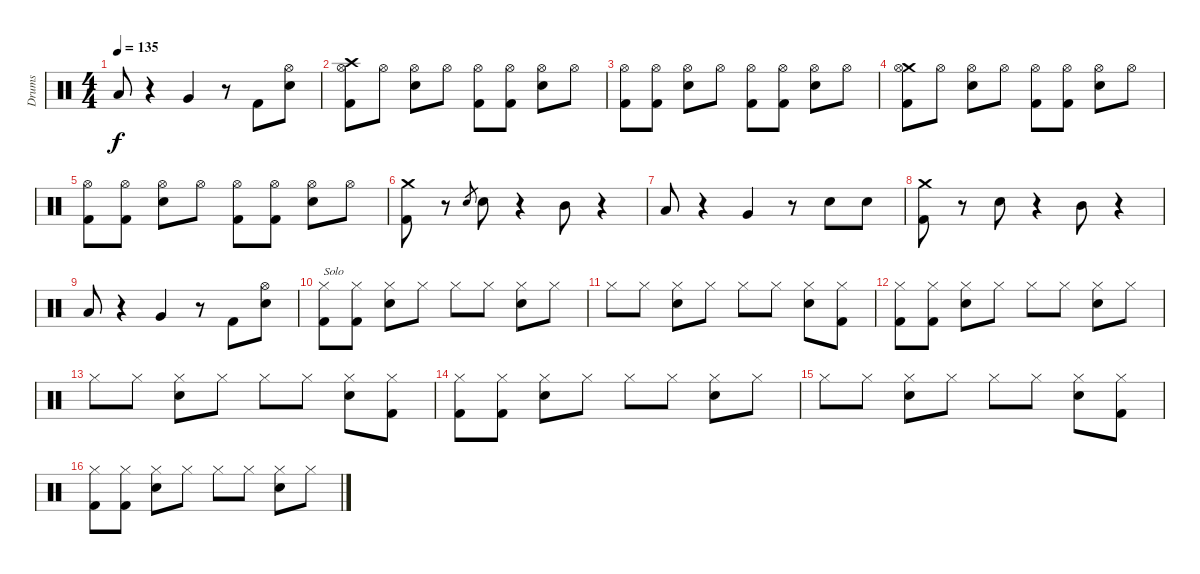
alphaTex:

\track ("Drums" "Drums") {instrument percussion}
\staff {score}
\articulation defaults
\ts (4 4)
\tempo 135
\clef neutral
\ks c "Low Tom (hit)".8{dy f}
r.4 "Very Low Tom (hit)".4 r.8 "Kick (hit) 2".8 ("Hi-Hat (open)" "Electric Snare (hit)").8 |
("Crash high (hit)" "Hi-Hat (open)" "Kick (hit) 2").8 "Hi-Hat (open)".8 ("Hi-Hat (open)" "Electric Snare (hit)").8 "Hi-Hat (open)".8 ("Hi-Hat (open)" "Kick (hit) 2").8 ("Hi-Hat (open)" "Kick (hit) 2").8 ("Hi-Hat (open)" "Electric Snare (hit)").8 "Hi-Hat (open)".8 |
("Hi-Hat (open)" "Kick (hit) 2").8 ("Hi-Hat (open)" "Kick (hit) 2").8 ("Hi-Hat (open)" "Electric Snare (hit)").8 "Hi-Hat (open)".8 ("Hi-Hat (open)" "Kick (hit) 2").8 ("Hi-Hat (open)" "Kick (hit) 2").8 ("Hi-Hat (open)" "Electric Snare (hit)").8 "Hi-Hat (open)".8 |
("Crash medium (hit)" "Hi-Hat (open)" "Kick (hit) 2").8 "Hi-Hat (open)".8 ("Hi-Hat (open)" "Electric Snare (hit)").8 "Hi-Hat (open)".8 ("Hi-Hat (open)" "Kick (hit) 2").8 ("Hi-Hat (open)" "Kick (hit) 2").8 ("Hi-Hat (open)" "Electric Snare (hit)").8 "Hi-Hat (open)".8 |
("Hi-Hat (open)" "Kick (hit) 2").8 ("Hi-Hat (open)" "Kick (hit) 2").8 ("Hi-Hat (open)" "Electric Snare (hit)").8 "Hi-Hat (open)".8 ("Hi-Hat (open)" "Kick (hit) 2").8 ("Hi-Hat (open)" "Kick (hit) 2").8 ("Hi-Hat (open)" "Electric Snare (hit)").8 "Hi-Hat (open)".8 |
("Crash medium (hit)" "Kick (hit) 2").8 r.8 "Electric Snare (hit)".8{gr} "Electric Snare (hit)".8 r.4 "Mid Tom (hit)".8 r.4 |
"Low Tom (hit)".8 r.4 "Very Low Tom (hit)".4 r.8 "Electric Snare (hit)".8 "Electric Snare (hit)".8 |
("Crash medium (hit)" "Kick (hit) 2").8 r.8 "Electric Snare (hit)".8 r.4 "Mid Tom (hit)".8 r.4 |
"Low Tom (hit)".8 r.4 "Very Low Tom (hit)".4 r.8 "Kick (hit) 2".8 ("Hi-Hat (open)" "Electric Snare (hit)").8 |
("Hi-Hat (closed)" "Kick (hit) 2").8{txt "Solo"} ("Hi-Hat (closed)" "Kick (hit) 2").8 ("Hi-Hat (closed)" "Electric Snare (hit)").8 "Hi-Hat (closed)".8 "Hi-Hat (closed)".8 "Hi-Hat (closed)".8 ("Hi-Hat (closed)" "Electric Snare (hit)").8 "Hi-Hat (closed)".8 |
"Hi-Hat (closed)".8 "Hi-Hat (closed)".8 ("Hi-Hat (closed)" "Electric Snare (hit)").8 "Hi-Hat (closed)".8 "Hi-Hat (closed)".8 "Hi-Hat (closed)".8 ("Hi-Hat (closed)" "Electric Snare (hit)").8 ("Hi-Hat (closed)" "Kick (hit) 2").8 |
("Hi-Hat (closed)" "Kick (hit) 2").8 ("Hi-Hat (closed)" "Kick (hit) 2").8 ("Hi-Hat (closed)" "Electric Snare (hit)").8 "Hi-Hat (closed)".8 "Hi-Hat (closed)".8 "Hi-Hat (closed)".8 ("Hi-Hat (closed)" "Electric Snare (hit)").8 "Hi-Hat (closed)".8 |
"Hi-Hat (closed)".8 "Hi-Hat (closed)".8 ("Hi-Hat (closed)" "Electric Snare (hit)").8 "Hi-Hat (closed)".8 "Hi-Hat (closed)".8 "Hi-Hat (closed)".8 ("Hi-Hat (closed)" "Electric Snare (hit)").8 ("Hi-Hat (closed)" "Kick (hit) 2").8 |
("Hi-Hat (closed)" "Kick (hit) 2").8 ("Hi-Hat (closed)" "Kick (hit) 2").8 ("Hi-Hat (closed)" "Electric Snare (hit)").8 "Hi-Hat (closed)".8 "Hi-Hat (closed)".8 "Hi-Hat (closed)".8 ("Hi-Hat (closed)" "Electric Snare (hit)").8 "Hi-Hat (closed)".8 |
"Hi-Hat (closed)".8 "Hi-Hat (closed)".8 ("Hi-Hat (closed)" "Electric Snare (hit)").8 "Hi-Hat (closed)".8 "Hi-Hat (closed)".8 "Hi-Hat (closed)".8 ("Hi-Hat (closed)" "Electric Snare (hit)").8 ("Hi-Hat (closed)" "Kick (hit) 2").8 |
("Hi-Hat (closed)" "Kick (hit) 2").8 ("Hi-Hat (closed)" "Kick (hit) 2").8 ("Hi-Hat (closed)" "Electric Snare (hit)").8 "Hi-Hat (closed)".8 "Hi-Hat (closed)".8 "Hi-Hat (closed)".8 ("Hi-Hat (closed)" "Electric Snare (hit)").8 "Hi-Hat (closed)".8
